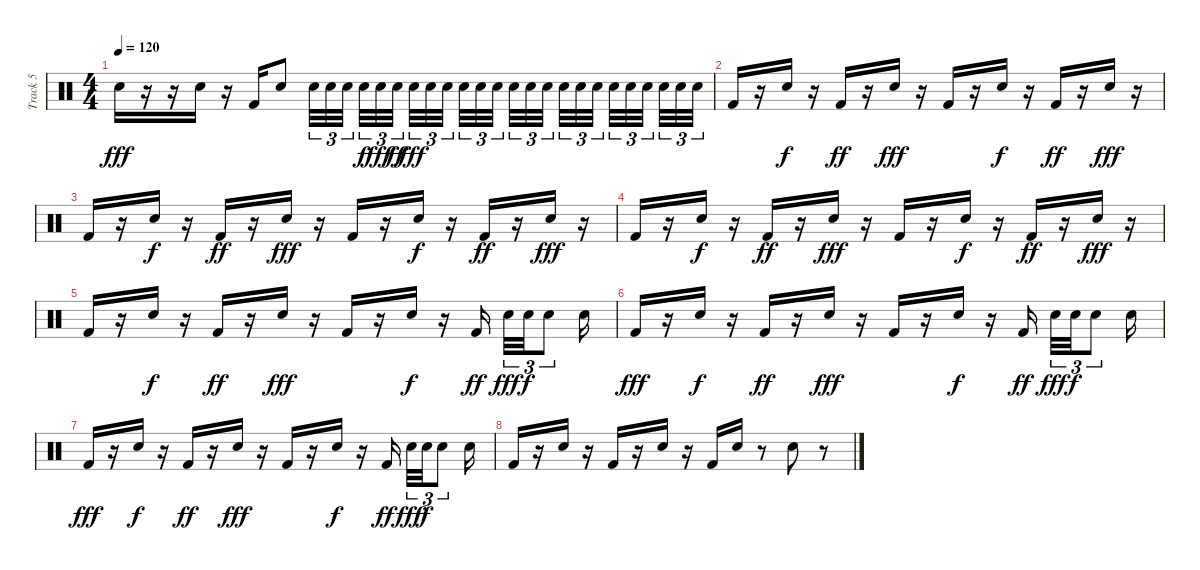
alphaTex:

\track ("Track 5" "Track 5") {instrument percussion}
\staff {score}
\articulation defaults
\ts (4 4)
\tempo 120
\clef neutral
\ks c "Electric Snare (hit)".16{dy fff}
r.16 r.16 "Electric Snare (hit)".16 r.16 "Kick (hit) 2".16 "Electric Snare (hit)".8 "Electric Snare (hit)".32{tu (3 2)} "Electric Snare (hit)".32{tu (3 2)} "Electric Snare (hit)".32{tu (3 2) beam splitsecondary} "Electric Snare (hit)".32{tu (3 2) dy f} "Electric Snare (hit)".32{tu (3 2) dy fff} "Electric Snare (hit)".32{tu (3 2) dy ff beam splitsecondary} "Electric Snare (hit)".32{tu (3 2) dy fff} "Electric Snare (hit)".32{tu (3 2)} "Electric Snare (hit)".32{tu (3 2) beam splitsecondary} "Electric Snare (hit)".32{tu (3 2)} "Electric Snare (hit)".32{tu (3 2)} "Electric Snare (hit)".32{tu (3 2)} "Electric Snare (hit)".32{tu (3 2)} "Electric Snare (hit)".32{tu (3 2)} "Electric Snare (hit)".32{tu (3 2) beam splitsecondary} "Electric Snare (hit)".32{tu (3 2)} "Electric Snare (hit)".32{tu (3 2)} "Electric Snare (hit)".32{tu (3 2) beam splitsecondary} "Electric Snare (hit)".32{tu (3 2)} "Electric Snare (hit)".32{tu (3 2)} "Electric Snare (hit)".32{tu (3 2) beam splitsecondary} "Electric Snare (hit)".32{tu (3 2)} "Electric Snare (hit)".32{tu (3 2)} "Electric Snare (hit)".32{tu (3 2)} |
"Kick (hit) 2".16 r.16 "Electric Snare (hit)".16{dy f} r.16 "Kick (hit) 2".16{dy ff} r.16 "Electric Snare (hit)".16{dy fff} r.16 "Kick (hit) 2".16 r.16 "Electric Snare (hit)".16{dy f} r.16 "Kick (hit) 2".16{dy ff} r.16 "Electric Snare (hit)".16{dy fff} r.16 |
"Kick (hit) 2".16 r.16 "Electric Snare (hit)".16{dy f} r.16 "Kick (hit) 2".16{dy ff} r.16 "Electric Snare (hit)".16{dy fff} r.16 "Kick (hit) 2".16 r.16 "Electric Snare (hit)".16{dy f} r.16 "Kick (hit) 2".16{dy ff} r.16 "Electric Snare (hit)".16{dy fff} r.16 |
"Kick (hit) 2".16 r.16 "Electric Snare (hit)".16{dy f} r.16 "Kick (hit) 2".16{dy ff} r.16 "Electric Snare (hit)".16{dy fff} r.16 "Kick (hit) 2".16 r.16 "Electric Snare (hit)".16{dy f} r.16 "Kick (hit) 2".16{dy ff} r.16 "Electric Snare (hit)".16{dy fff} r.16 |
"Kick (hit) 2".16 r.16 "Electric Snare (hit)".16{dy f} r.16 "Kick (hit) 2".16{dy ff} r.16 "Electric Snare (hit)".16{dy fff} r.16 "Kick (hit) 2".16 r.16 "Electric Snare (hit)".16{dy f} r.16 "Kick (hit) 2".16{dy ff beam splitsecondary} "Electric Snare (hit)".32{tu (3 2) dy fff} "Electric Snare (hit)".32{tu (3 2) dy f} "Electric Snare (hit)".8{tu (3 2)} "Electric Snare (hit)".16 |
"Kick (hit) 2".16{dy fff} r.16 "Electric Snare (hit)".16{dy f} r.16 "Kick (hit) 2".16{dy ff} r.16 "Electric Snare (hit)".16{dy fff} r.16 "Kick (hit) 2".16 r.16 "Electric Snare (hit)".16{dy f} r.16 "Kick (hit) 2".16{dy ff beam splitsecondary} "Electric Snare (hit)".32{tu (3 2) dy fff} "Electric Snare (hit)".32{tu (3 2) dy f} "Electric Snare (hit)".8{tu (3 2)} "Electric Snare (hit)".16 |
"Kick (hit) 2".16{dy fff} r.16 "Electric Snare (hit)".16{dy f} r.16 "Kick (hit) 2".16{dy ff} r.16 "Electric Snare (hit)".16{dy fff} r.16 "Kick (hit) 2".16 r.16 "Electric Snare (hit)".16{dy f} r.16 "Kick (hit) 2".16{dy ff beam splitsecondary} "Electric Snare (hit)".32{tu (3 2) dy fff} "Electric Snare (hit)".32{tu (3 2) dy f} "Electric Snare (hit)".8{tu (3 2)} "Electric Snare (hit)".16 |
"Kick (hit) 2".16 r.16 "Electric Snare (hit)".16 r.16 "Kick (hit) 2".16 r.16 "Electric Snare (hit)".16 r.16 "Kick (hit) 2".16 "Electric Snare (hit)".16 r.8 "Electric Snare (hit)".8 r.8
